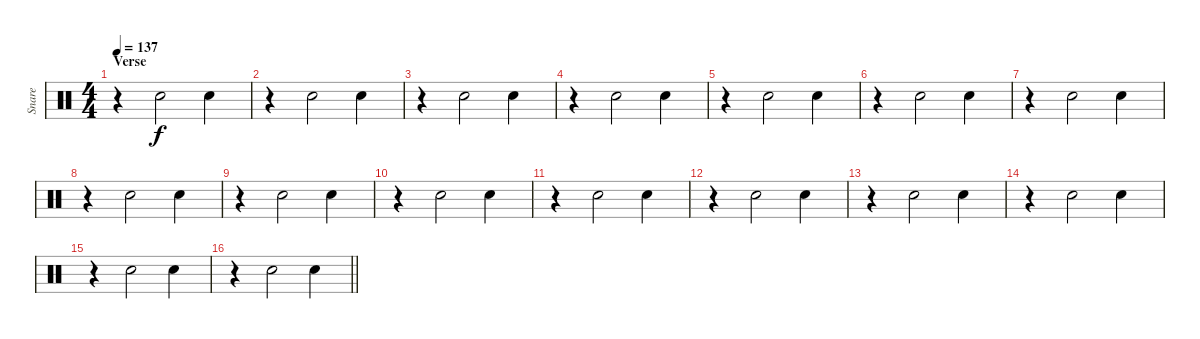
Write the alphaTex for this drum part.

\track ("Snare" "Snare") {instrument percussion}
\staff {score}
\articulation defaults
\ts (4 4)
\section ("" "Verse")
\tempo 137
\clef neutral
\ks c
r.4{dy f} "Electric Snare (hit)".2 "Electric Snare (hit)".4 |
r.4 "Electric Snare (hit)".2 "Electric Snare (hit)".4 |
r.4 "Electric Snare (hit)".2 "Electric Snare (hit)".4 |
r.4 "Electric Snare (hit)".2 "Electric Snare (hit)".4 |
r.4 "Electric Snare (hit)".2 "Electric Snare (hit)".4 |
r.4 "Electric Snare (hit)".2 "Electric Snare (hit)".4 |
r.4 "Electric Snare (hit)".2 "Electric Snare (hit)".4 |
r.4 "Electric Snare (hit)".2 "Electric Snare (hit)".4 |
r.4 "Electric Snare (hit)".2 "Electric Snare (hit)".4 |
r.4 "Electric Snare (hit)".2 "Electric Snare (hit)".4 |
r.4 "Electric Snare (hit)".2 "Electric Snare (hit)".4 |
r.4 "Electric Snare (hit)".2 "Electric Snare (hit)".4 |
r.4 "Electric Snare (hit)".2 "Electric Snare (hit)".4 |
r.4 "Electric Snare (hit)".2 "Electric Snare (hit)".4 |
r.4 "Electric Snare (hit)".2 "Electric Snare (hit)".4 |
\barLineRight lightlight
r.4 "Electric Snare (hit)".2 "Electric Snare (hit)".4
